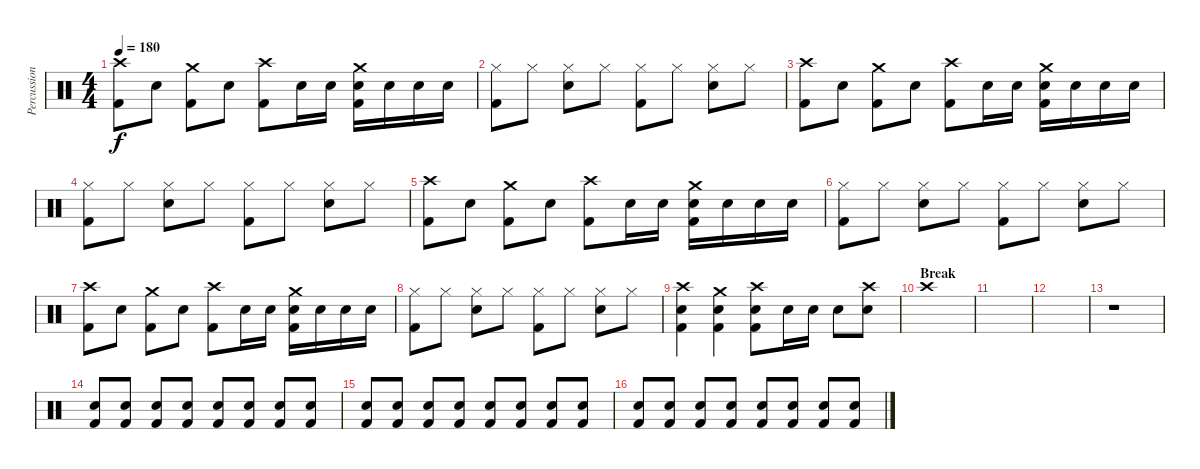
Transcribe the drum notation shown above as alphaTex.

\track ("Percussions" "Percussion") {instrument percussion}
\staff {score}
\articulation defaults
\ts (4 4)
\tempo 180
\clef neutral
\ks c
("Crash high (hit)" "Kick (hit) 2").8{dy f} "Snare (hit) 2".8 ("Crash medium (hit)" "Kick (hit) 2").8 "Snare (hit) 2".8 ("Crash high (hit)" "Kick (hit) 2").8 "Snare (hit) 2".16 "Snare (hit) 2".16 ("Crash medium (hit)" "Snare (hit) 2" "Kick (hit) 2").16 "Snare (hit) 2".16 "Snare (hit) 2".16 "Snare (hit) 2".16 |
("Hi-Hat (closed)" "Kick (hit) 2").8 "Hi-Hat (closed)".8 ("Hi-Hat (closed)" "Snare (hit) 2").8 "Hi-Hat (closed)".8 ("Hi-Hat (closed)" "Kick (hit) 2").8 "Hi-Hat (closed)".8 ("Hi-Hat (closed)" "Snare (hit) 2").8 "Hi-Hat (closed)".8 |
("Crash high (hit)" "Kick (hit) 2").8 "Snare (hit) 2".8 ("Crash medium (hit)" "Kick (hit) 2").8 "Snare (hit) 2".8 ("Crash high (hit)" "Kick (hit) 2").8 "Snare (hit) 2".16 "Snare (hit) 2".16 ("Crash medium (hit)" "Snare (hit) 2" "Kick (hit) 2").16 "Snare (hit) 2".16 "Snare (hit) 2".16 "Snare (hit) 2".16 |
("Hi-Hat (closed)" "Kick (hit) 2").8 "Hi-Hat (closed)".8 ("Hi-Hat (closed)" "Snare (hit) 2").8 "Hi-Hat (closed)".8 ("Hi-Hat (closed)" "Kick (hit) 2").8 "Hi-Hat (closed)".8 ("Hi-Hat (closed)" "Snare (hit) 2").8 "Hi-Hat (closed)".8 |
("Crash high (hit)" "Kick (hit) 2").8 "Snare (hit) 2".8 ("Crash medium (hit)" "Kick (hit) 2").8 "Snare (hit) 2".8 ("Crash high (hit)" "Kick (hit) 2").8 "Snare (hit) 2".16 "Snare (hit) 2".16 ("Crash medium (hit)" "Snare (hit) 2" "Kick (hit) 2").16 "Snare (hit) 2".16 "Snare (hit) 2".16 "Snare (hit) 2".16 |
("Hi-Hat (closed)" "Kick (hit) 2").8 "Hi-Hat (closed)".8 ("Hi-Hat (closed)" "Snare (hit) 2").8 "Hi-Hat (closed)".8 ("Hi-Hat (closed)" "Kick (hit) 2").8 "Hi-Hat (closed)".8 ("Hi-Hat (closed)" "Snare (hit) 2").8 "Hi-Hat (closed)".8 |
("Crash high (hit)" "Kick (hit) 2").8 "Snare (hit) 2".8 ("Crash medium (hit)" "Kick (hit) 2").8 "Snare (hit) 2".8 ("Crash high (hit)" "Kick (hit) 2").8 "Snare (hit) 2".16 "Snare (hit) 2".16 ("Crash medium (hit)" "Snare (hit) 2" "Kick (hit) 2").16 "Snare (hit) 2".16 "Snare (hit) 2".16 "Snare (hit) 2".16 |
("Hi-Hat (closed)" "Kick (hit) 2").8 "Hi-Hat (closed)".8 ("Hi-Hat (closed)" "Snare (hit) 2").8 "Hi-Hat (closed)".8 ("Hi-Hat (closed)" "Kick (hit) 2").8 "Hi-Hat (closed)".8 ("Hi-Hat (closed)" "Snare (hit) 2").8 "Hi-Hat (closed)".8 |
("Crash high (hit)" "Snare (hit) 2" "Kick (hit) 2").4 ("Crash medium (hit)" "Snare (hit) 2" "Kick (hit) 2").4 ("Crash high (hit)" "Snare (hit) 2" "Kick (hit) 2").8 "Snare (hit) 2".16 "Snare (hit) 2".16 "Snare (hit) 2".8 ("Crash high (hit)" "Snare (hit) 2").8 |
\section ("" "Break")
"Crash high (hit)".1 |
|
|
r.1{volume 0} |
("Snare (hit) 2" "Kick (hit) 2").8{volume 14} ("Snare (hit) 2" "Kick (hit) 2").8 ("Snare (hit) 2" "Kick (hit) 2").8 ("Snare (hit) 2" "Kick (hit) 2").8 ("Snare (hit) 2" "Kick (hit) 2").8 ("Snare (hit) 2" "Kick (hit) 2").8 ("Snare (hit) 2" "Kick (hit) 2").8 ("Snare (hit) 2" "Kick (hit) 2").8 |
("Snare (hit) 2" "Kick (hit) 2").8 ("Snare (hit) 2" "Kick (hit) 2").8 ("Snare (hit) 2" "Kick (hit) 2").8 ("Snare (hit) 2" "Kick (hit) 2").8 ("Snare (hit) 2" "Kick (hit) 2").8 ("Snare (hit) 2" "Kick (hit) 2").8 ("Snare (hit) 2" "Kick (hit) 2").8 ("Snare (hit) 2" "Kick (hit) 2").8 |
("Snare (hit) 2" "Kick (hit) 2").8 ("Snare (hit) 2" "Kick (hit) 2").8 ("Snare (hit) 2" "Kick (hit) 2").8 ("Snare (hit) 2" "Kick (hit) 2").8 ("Snare (hit) 2" "Kick (hit) 2").8 ("Snare (hit) 2" "Kick (hit) 2").8 ("Snare (hit) 2" "Kick (hit) 2").8 ("Snare (hit) 2" "Kick (hit) 2").8
